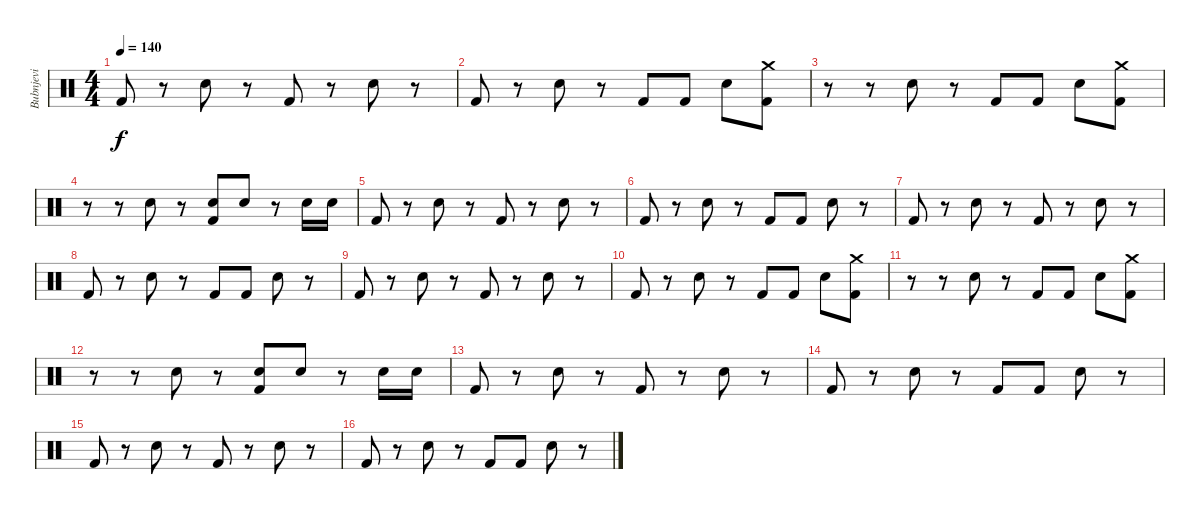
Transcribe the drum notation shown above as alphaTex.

\track ("Bubnjevi" "Bubnjevi") {instrument percussion}
\staff {score}
\articulation defaults
\ts (4 4)
\tempo 140
\clef neutral
\ks c "Kick (hit) 2".8{dy f}
r.8 "Snare (hit) 2".8 r.8 "Kick (hit) 2".8 r.8 "Snare (hit) 2".8 r.8 |
"Kick (hit) 2".8 r.8 "Snare (hit) 2".8 r.8 "Kick (hit) 2".8 "Kick (hit) 2".8 "Snare (hit) 2".8 ("Crash medium (hit)" "Kick (hit) 2").8 |
r.8 r.8 "Snare (hit) 2".8 r.8 "Kick (hit) 2".8 "Kick (hit) 2".8 "Snare (hit) 2".8 ("Crash medium (hit)" "Kick (hit) 2").8 |
r.8 r.8 "Snare (hit) 2".8 r.8 ("Snare (hit) 2" "Kick (hit) 2").8 "Snare (hit) 2".8 r.8 "Snare (hit) 2".16 "Snare (hit) 2".16 |
"Kick (hit) 2".8 r.8 "Snare (hit) 2".8 r.8 "Kick (hit) 2".8 r.8 "Snare (hit) 2".8 r.8 |
"Kick (hit) 2".8 r.8 "Snare (hit) 2".8 r.8 "Kick (hit) 2".8 "Kick (hit) 2".8 "Snare (hit) 2".8 r.8 |
"Kick (hit) 2".8 r.8 "Snare (hit) 2".8 r.8 "Kick (hit) 2".8 r.8 "Snare (hit) 2".8 r.8 |
"Kick (hit) 2".8 r.8 "Snare (hit) 2".8 r.8 "Kick (hit) 2".8 "Kick (hit) 2".8 "Snare (hit) 2".8 r.8 |
"Kick (hit) 2".8 r.8 "Snare (hit) 2".8 r.8 "Kick (hit) 2".8 r.8 "Snare (hit) 2".8 r.8 |
"Kick (hit) 2".8 r.8 "Snare (hit) 2".8 r.8 "Kick (hit) 2".8 "Kick (hit) 2".8 "Snare (hit) 2".8 ("Crash medium (hit)" "Kick (hit) 2").8 |
r.8 r.8 "Snare (hit) 2".8 r.8 "Kick (hit) 2".8 "Kick (hit) 2".8 "Snare (hit) 2".8 ("Crash medium (hit)" "Kick (hit) 2").8 |
r.8 r.8 "Snare (hit) 2".8 r.8 ("Snare (hit) 2" "Kick (hit) 2").8 "Snare (hit) 2".8 r.8 "Snare (hit) 2".16 "Snare (hit) 2".16 |
"Kick (hit) 2".8 r.8 "Snare (hit) 2".8 r.8 "Kick (hit) 2".8 r.8 "Snare (hit) 2".8 r.8 |
"Kick (hit) 2".8 r.8 "Snare (hit) 2".8 r.8 "Kick (hit) 2".8 "Kick (hit) 2".8 "Snare (hit) 2".8 r.8 |
"Kick (hit) 2".8 r.8 "Snare (hit) 2".8 r.8 "Kick (hit) 2".8 r.8 "Snare (hit) 2".8 r.8 |
"Kick (hit) 2".8 r.8 "Snare (hit) 2".8 r.8 "Kick (hit) 2".8 "Kick (hit) 2".8 "Snare (hit) 2".8 r.8
